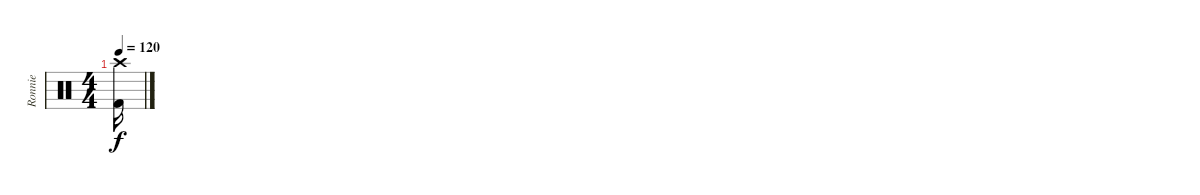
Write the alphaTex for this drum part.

\track ("Ronnie" "Ronnie") {instrument percussion}
\staff {score}
\articulation defaults
\ts (4 4)
\tempo 120
\clef neutral
\ks c
("Crash high (hit)" "Kick (hit) 2").16{dy f}
